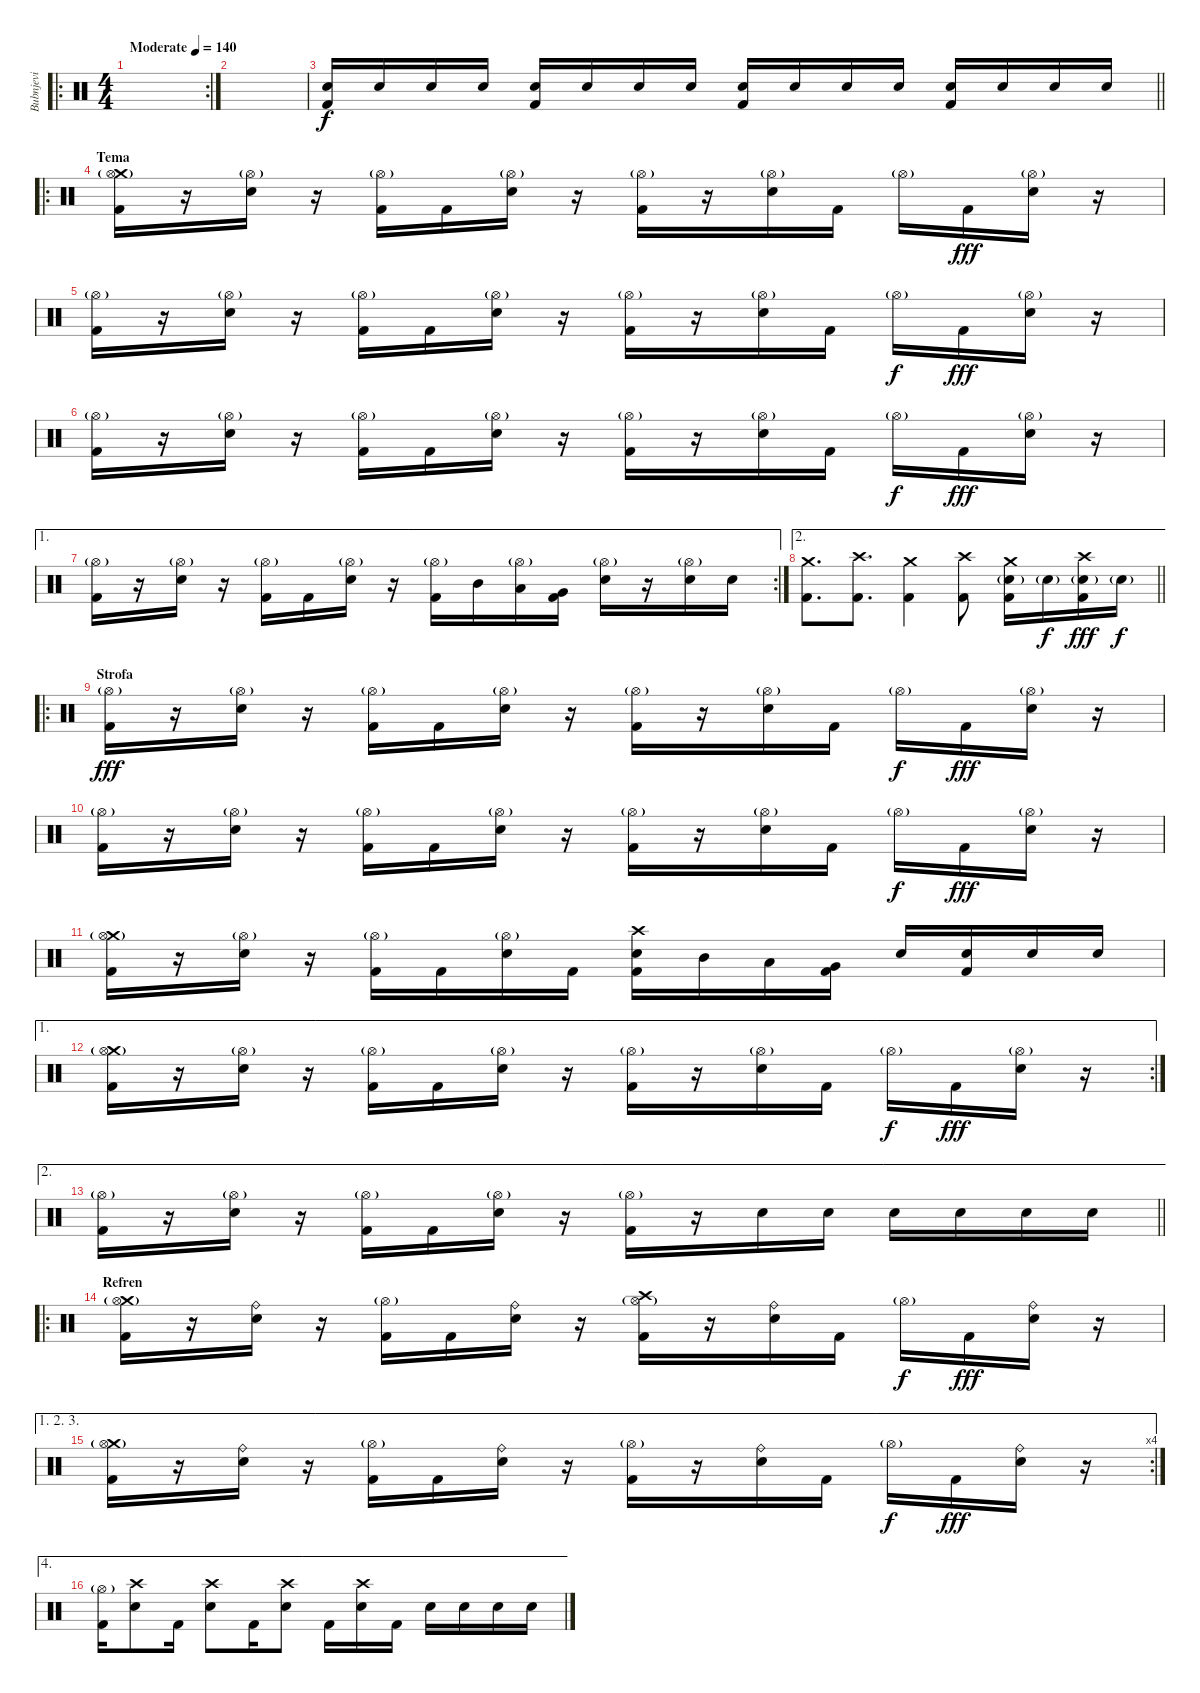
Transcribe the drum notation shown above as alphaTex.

\track ("Bubnjevi" "Bubnjevi") {instrument percussion}
\staff {score}
\articulation defaults
\ro
\rc 2
\ts (4 4)
\tempo (140 "Moderate")
\clef neutral
\ks c
|
|
\barLineRight lightlight
("Snare (hit) 2" "Kick (hit) 2").16 "Snare (hit) 2".16 "Snare (hit) 2".16 "Snare (hit) 2".16 ("Snare (hit) 2" "Kick (hit) 2").16 "Snare (hit) 2".16 "Snare (hit) 2".16 "Snare (hit) 2".16 ("Snare (hit) 2" "Kick (hit) 2").16 "Snare (hit) 2".16 "Snare (hit) 2".16 "Snare (hit) 2".16 ("Snare (hit) 2" "Kick (hit) 2").16 "Snare (hit) 2".16 "Snare (hit) 2".16 "Snare (hit) 2".16 |
\ro
\section ("" "Tema")
("Crash medium (hit)" "Hi-Hat (open)"{g} "Kick (hit) 2").16 r.16 ("Hi-Hat (open)"{g} "Snare (hit) 2").16 r.16 ("Hi-Hat (open)"{g} "Kick (hit) 2").16 "Kick (hit) 2".16 ("Hi-Hat (open)"{g} "Snare (hit) 2").16 r.16 ("Hi-Hat (open)"{g} "Kick (hit) 2").16 r.16 ("Hi-Hat (open)"{g} "Snare (hit) 2").16 "Kick (hit) 2".16 "Hi-Hat (open)"{g}.16{dy f} "Kick (hit) 2".16{dy fff} ("Hi-Hat (open)"{g} "Snare (hit) 2").16 r.16 |
("Hi-Hat (open)"{g} "Kick (hit) 2").16 r.16 ("Hi-Hat (open)"{g} "Snare (hit) 2").16 r.16 ("Hi-Hat (open)"{g} "Kick (hit) 2").16 "Kick (hit) 2".16 ("Hi-Hat (open)"{g} "Snare (hit) 2").16 r.16 ("Hi-Hat (open)"{g} "Kick (hit) 2").16 r.16 ("Hi-Hat (open)"{g} "Snare (hit) 2").16 "Kick (hit) 2".16 "Hi-Hat (open)"{g}.16{dy f} "Kick (hit) 2".16{dy fff} ("Hi-Hat (open)"{g} "Snare (hit) 2").16 r.16 |
("Hi-Hat (open)"{g} "Kick (hit) 2").16 r.16 ("Hi-Hat (open)"{g} "Snare (hit) 2").16 r.16 ("Hi-Hat (open)"{g} "Kick (hit) 2").16 "Kick (hit) 2".16 ("Hi-Hat (open)"{g} "Snare (hit) 2").16 r.16 ("Hi-Hat (open)"{g} "Kick (hit) 2").16 r.16 ("Hi-Hat (open)"{g} "Snare (hit) 2").16 "Kick (hit) 2".16 "Hi-Hat (open)"{g}.16{dy f} "Kick (hit) 2".16{dy fff} ("Hi-Hat (open)"{g} "Snare (hit) 2").16 r.16 |
\ae 1
\rc 2
("Hi-Hat (open)"{g} "Kick (hit) 2").16 r.16 ("Hi-Hat (open)"{g} "Snare (hit) 2").16 r.16 ("Hi-Hat (open)"{g} "Kick (hit) 2").16 "Kick (hit) 2".16 ("Hi-Hat (open)"{g} "Snare (hit) 2").16 r.16 ("Hi-Hat (open)"{g} "Kick (hit) 2").16 "Mid Tom (hit)".16 ("Hi-Hat (open)"{g} "Low Tom (hit)").16 ("Very Low Tom (hit)" "Kick (hit) 2").16 ("Hi-Hat (open)"{g} "Snare (hit) 2").16 r.16 ("Hi-Hat (open)"{g} "Snare (hit) 2").16 "Snare (hit) 2".16 |
\ae 2
\barLineRight lightlight
("Crash medium (hit)" "Kick (hit) 2").8{d} ("Crash high (hit)" "Kick (hit) 2").8{d} ("Crash medium (hit)" "Kick (hit) 2").4 ("Crash high (hit)" "Kick (hit) 2").8 ("Crash medium (hit)" "Snare (hit) 2"{g} "Kick (hit) 2").16 "Snare (hit) 2"{g}.16{dy f} ("Crash high (hit)" "Snare (hit) 2"{g} "Kick (hit) 2").16{dy fff} "Snare (hit) 2"{g}.16{dy f} |
\ro
\section ("" "Strofa")
("Hi-Hat (open)"{g} "Kick (hit) 2").16{dy fff} r.16 ("Hi-Hat (open)"{g} "Snare (hit) 2").16 r.16 ("Hi-Hat (open)"{g} "Kick (hit) 2").16 "Kick (hit) 2".16 ("Hi-Hat (open)"{g} "Snare (hit) 2").16 r.16 ("Hi-Hat (open)"{g} "Kick (hit) 2").16 r.16 ("Hi-Hat (open)"{g} "Snare (hit) 2").16 "Kick (hit) 2".16 "Hi-Hat (open)"{g}.16{dy f} "Kick (hit) 2".16{dy fff} ("Hi-Hat (open)"{g} "Snare (hit) 2").16 r.16 |
("Hi-Hat (open)"{g} "Kick (hit) 2").16 r.16 ("Hi-Hat (open)"{g} "Snare (hit) 2").16 r.16 ("Hi-Hat (open)"{g} "Kick (hit) 2").16 "Kick (hit) 2".16 ("Hi-Hat (open)"{g} "Snare (hit) 2").16 r.16 ("Hi-Hat (open)"{g} "Kick (hit) 2").16 r.16 ("Hi-Hat (open)"{g} "Snare (hit) 2").16 "Kick (hit) 2".16 "Hi-Hat (open)"{g}.16{dy f} "Kick (hit) 2".16{dy fff} ("Hi-Hat (open)"{g} "Snare (hit) 2").16 r.16 |
("Crash medium (hit)" "Hi-Hat (open)"{g} "Kick (hit) 2").16 r.16 ("Hi-Hat (open)"{g} "Snare (hit) 2").16 r.16 ("Hi-Hat (open)"{g} "Kick (hit) 2").16 "Kick (hit) 2".16 ("Hi-Hat (open)"{g} "Snare (hit) 2").16 "Kick (hit) 2".16 ("Crash high (hit)" "Snare (hit) 2" "Kick (hit) 2").16 "Mid Tom (hit)".16 "Low Tom (hit)".16 ("Very Low Tom (hit)" "Kick (hit) 2").16 "Snare (hit) 2".16 ("Snare (hit) 2" "Kick (hit) 2").16 "Snare (hit) 2".16 "Snare (hit) 2".16 |
\ae 1
\rc 2
("Crash medium (hit)" "Hi-Hat (open)"{g} "Kick (hit) 2").16 r.16 ("Hi-Hat (open)"{g} "Snare (hit) 2").16 r.16 ("Hi-Hat (open)"{g} "Kick (hit) 2").16 "Kick (hit) 2".16 ("Hi-Hat (open)"{g} "Snare (hit) 2").16 r.16 ("Hi-Hat (open)"{g} "Kick (hit) 2").16 r.16 ("Hi-Hat (open)"{g} "Snare (hit) 2").16 "Kick (hit) 2".16 "Hi-Hat (open)"{g}.16{dy f} "Kick (hit) 2".16{dy fff} ("Hi-Hat (open)"{g} "Snare (hit) 2").16 r.16 |
\ae 2
\barLineRight lightlight
("Hi-Hat (open)"{g} "Kick (hit) 2").16 r.16 ("Hi-Hat (open)"{g} "Snare (hit) 2").16 r.16 ("Hi-Hat (open)"{g} "Kick (hit) 2").16 "Kick (hit) 2".16 ("Hi-Hat (open)"{g} "Snare (hit) 2").16 r.16 ("Hi-Hat (open)"{g} "Kick (hit) 2").16 r.16 "Snare (hit) 2".16 "Snare (hit) 2".16 "Snare (hit) 2".16 "Snare (hit) 2".16 "Snare (hit) 2".16 "Snare (hit) 2".16 |
\ro
\section ("" "Refren")
("Crash medium (hit)" "Hi-Hat (open)"{g} "Kick (hit) 2").16 r.16 ("Ride (bell)" "Snare (hit) 2").16 r.16 ("Hi-Hat (open)"{g} "Kick (hit) 2").16 "Kick (hit) 2".16 ("Ride (bell)" "Snare (hit) 2").16 r.16 ("Crash high (hit)" "Hi-Hat (open)"{g} "Kick (hit) 2").16 r.16 ("Ride (bell)" "Snare (hit) 2").16 "Kick (hit) 2".16 "Hi-Hat (open)"{g}.16{dy f} "Kick (hit) 2".16{dy fff} ("Ride (bell)" "Snare (hit) 2").16 r.16 |
\ae (1 2 3)
\rc 4
("Crash medium (hit)" "Hi-Hat (open)"{g} "Kick (hit) 2").16 r.16 ("Ride (bell)" "Snare (hit) 2").16 r.16 ("Hi-Hat (open)"{g} "Kick (hit) 2").16 "Kick (hit) 2".16 ("Ride (bell)" "Snare (hit) 2").16 r.16 ("Hi-Hat (open)"{g} "Kick (hit) 2").16 r.16 ("Ride (bell)" "Snare (hit) 2").16 "Kick (hit) 2".16 "Hi-Hat (open)"{g}.16{dy f} "Kick (hit) 2".16{dy fff} ("Ride (bell)" "Snare (hit) 2").16 r.16 |
\ae 4
("Hi-Hat (open)"{g} "Kick (hit) 2").16 ("Crash high (hit)" "Snare (hit) 2").8 "Kick (hit) 2".16 ("Crash high (hit)" "Snare (hit) 2").8 "Kick (hit) 2".16 ("Crash high (hit)" "Snare (hit) 2").8 "Kick (hit) 2".16 ("Crash high (hit)" "Snare (hit) 2").16 "Kick (hit) 2".16 "Snare (hit) 2".16 "Snare (hit) 2".16 "Snare (hit) 2".16 "Snare (hit) 2".16
